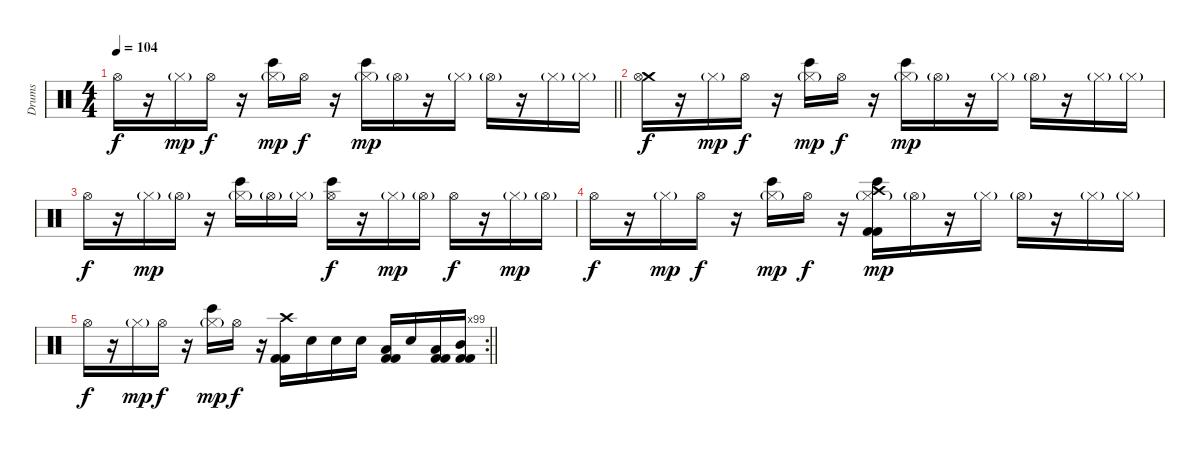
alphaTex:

\track ("Drums" "Drums") {instrument percussion}
\staff {score}
\articulation defaults
\ts (4 4)
\tempo 104
\clef neutral
\barLineRight lightlight
\ks c "Hi-Hat (open)".16{dy f}
r.16 "Hi-Hat (closed)"{g}.16{dy mp} "Hi-Hat (open)".16{dy f} r.16 ("Bongo High (hit)" "Hi-Hat (closed)"{g}).16{dy mp} "Hi-Hat (open)".16{dy f} r.16 ("Bongo High (hit)" "Hi-Hat (closed)"{g}).16{dy mp} "Hi-Hat (open)"{g}.16 r.16 "Hi-Hat (closed)"{g}.16 "Hi-Hat (open)"{g}.16 r.16 "Hi-Hat (closed)"{g}.16 "Hi-Hat (closed)"{g}.16 |
("Crash medium (hit)" "Hi-Hat (open)").16{dy f} r.16 "Hi-Hat (closed)"{g}.16{dy mp} "Hi-Hat (open)".16{dy f} r.16 ("Bongo High (hit)" "Hi-Hat (closed)"{g}).16{dy mp} "Hi-Hat (open)".16{dy f} r.16 ("Bongo High (hit)" "Hi-Hat (closed)"{g}).16{dy mp} "Hi-Hat (open)"{g}.16 r.16 "Hi-Hat (closed)"{g}.16 "Hi-Hat (open)"{g}.16 r.16 "Hi-Hat (closed)"{g}.16 "Hi-Hat (closed)"{g}.16 |
"Hi-Hat (open)".16{dy f} r.16 "Hi-Hat (closed)"{g}.16{dy mp} "Hi-Hat (open)"{g}.16 r.16 ("Bongo High (hit)" "Hi-Hat (closed)"{g}).16 "Hi-Hat (open)"{g}.16 "Hi-Hat (closed)"{g}.16 ("Bongo High (hit)" "Hi-Hat (open)").16{dy f} r.16 "Hi-Hat (closed)"{g}.16{dy mp} "Hi-Hat (open)"{g}.16 "Hi-Hat (open)".16{dy f} r.16 "Hi-Hat (closed)"{g}.16{dy mp} "Hi-Hat (open)"{g}.16 |
"Hi-Hat (open)".16{dy f} r.16 "Hi-Hat (closed)"{g}.16{dy mp} "Hi-Hat (open)".16{dy f} r.16 ("Bongo High (hit)" "Hi-Hat (closed)"{g}).16{dy mp} "Hi-Hat (open)".16{dy f} r.16 ("Crash high (hit)" "Bongo High (hit)" "Hi-Hat (closed)"{g} "Kick (hit) 2" "Kick (hit) 2").16{dy mp} "Hi-Hat (open)"{g}.16 r.16 "Hi-Hat (closed)"{g}.16 "Hi-Hat (open)"{g}.16 r.16 "Hi-Hat (closed)"{g}.16 "Hi-Hat (closed)"{g}.16 |
\rc 99
\barLineRight lightlight "Hi-Hat (open)".16{dy f}
r.16 "Hi-Hat (closed)"{g}.16{dy mp} "Hi-Hat (open)".16{dy f} r.16 ("Bongo High (hit)" "Hi-Hat (closed)"{g}).16{dy mp} "Hi-Hat (open)".16{dy f} r.16 ("Crash high (hit)" "Kick (hit) 2" "Kick (hit) 2").16 "Snare (hit) 2".16 "Snare (hit) 2".16 "Snare (hit) 2".16 ("Low Tom (hit)" "Kick (hit) 2" "Kick (hit) 2").16 "Snare (hit) 2".16 ("Low Tom (hit)" "Kick (hit) 2" "Kick (hit) 2").16 ("Mid Tom (hit)" "Kick (hit) 2" "Kick (hit) 2").16
